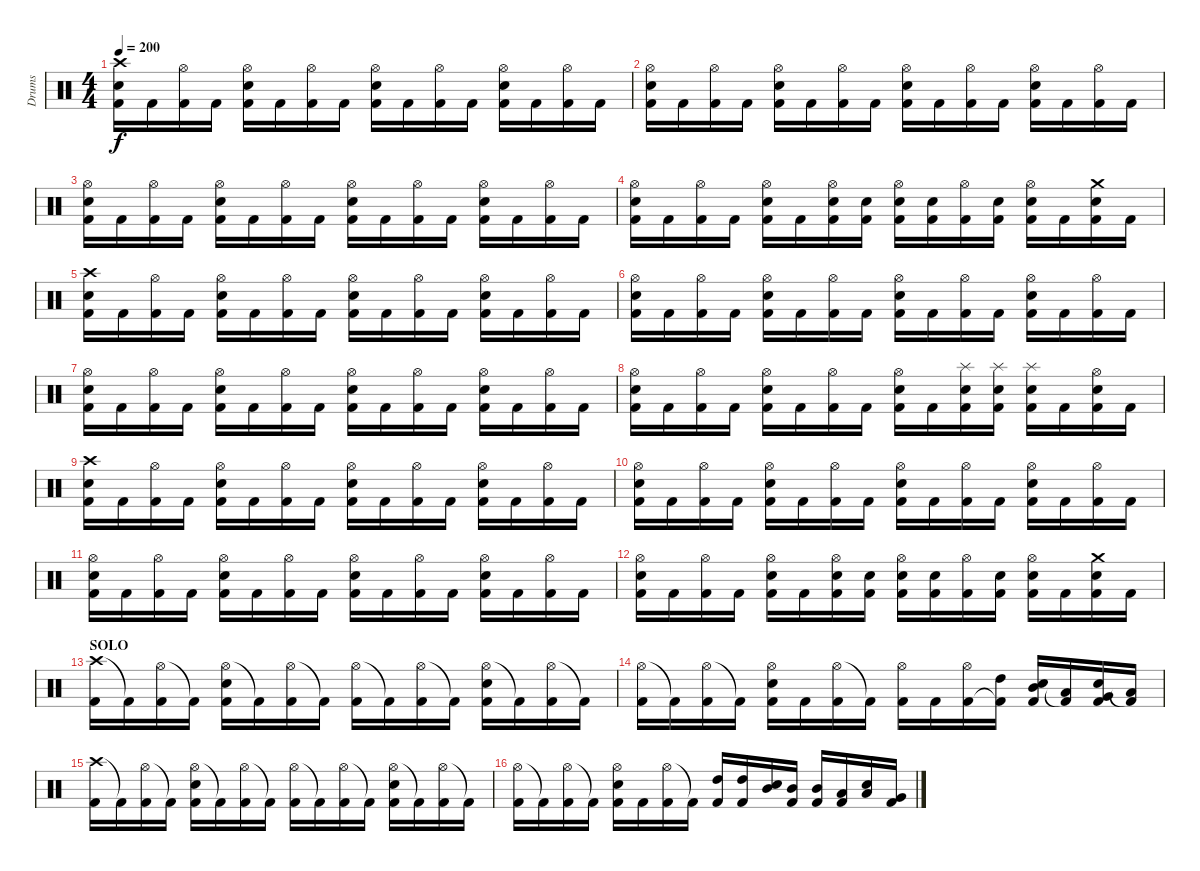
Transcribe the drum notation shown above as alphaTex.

\track ("Drums" "Drums") {instrument percussion}
\staff {score}
\articulation defaults
\ts (4 4)
\tempo 200
\clef neutral
\ks c
("Crash high (hit)" "Electric Snare (hit)" "Kick (hit) 2").16{dy f} "Kick (hit) 2".16 ("Hi-Hat (open)" "Kick (hit) 2").16 "Kick (hit) 2".16 ("Hi-Hat (open)" "Electric Snare (hit)" "Kick (hit) 2").16 "Kick (hit) 2".16 ("Hi-Hat (open)" "Kick (hit) 2").16 "Kick (hit) 2".16 ("Hi-Hat (open)" "Electric Snare (hit)" "Kick (hit) 2").16 "Kick (hit) 2".16 ("Hi-Hat (open)" "Kick (hit) 2").16 "Kick (hit) 2".16 ("Hi-Hat (open)" "Electric Snare (hit)" "Kick (hit) 2").16 "Kick (hit) 2".16 ("Hi-Hat (open)" "Kick (hit) 2").16 "Kick (hit) 2".16 |
("Hi-Hat (open)" "Electric Snare (hit)" "Kick (hit) 2").16 "Kick (hit) 2".16 ("Hi-Hat (open)" "Kick (hit) 2").16 "Kick (hit) 2".16 ("Hi-Hat (open)" "Electric Snare (hit)" "Kick (hit) 2").16 "Kick (hit) 2".16 ("Hi-Hat (open)" "Kick (hit) 2").16 "Kick (hit) 2".16 ("Hi-Hat (open)" "Electric Snare (hit)" "Kick (hit) 2").16 "Kick (hit) 2".16 ("Hi-Hat (open)" "Kick (hit) 2").16 "Kick (hit) 2".16 ("Hi-Hat (open)" "Electric Snare (hit)" "Kick (hit) 2").16 "Kick (hit) 2".16 ("Hi-Hat (open)" "Kick (hit) 2").16 "Kick (hit) 2".16 |
("Hi-Hat (open)" "Electric Snare (hit)" "Kick (hit) 2").16 "Kick (hit) 2".16 ("Hi-Hat (open)" "Kick (hit) 2").16 "Kick (hit) 2".16 ("Hi-Hat (open)" "Electric Snare (hit)" "Kick (hit) 2").16 "Kick (hit) 2".16 ("Hi-Hat (open)" "Kick (hit) 2").16 "Kick (hit) 2".16 ("Hi-Hat (open)" "Electric Snare (hit)" "Kick (hit) 2").16 "Kick (hit) 2".16 ("Hi-Hat (open)" "Kick (hit) 2").16 "Kick (hit) 2".16 ("Hi-Hat (open)" "Electric Snare (hit)" "Kick (hit) 2").16 "Kick (hit) 2".16 ("Hi-Hat (open)" "Kick (hit) 2").16 "Kick (hit) 2".16 |
("Hi-Hat (open)" "Electric Snare (hit)" "Kick (hit) 2").16 "Kick (hit) 2".16 ("Hi-Hat (open)" "Kick (hit) 2").16 "Kick (hit) 2".16 ("Hi-Hat (open)" "Electric Snare (hit)" "Kick (hit) 2").16 "Kick (hit) 2".16 ("Hi-Hat (open)" "Electric Snare (hit)" "Kick (hit) 2").16 ("Electric Snare (hit)" "Kick (hit) 2").16 ("Hi-Hat (open)" "Electric Snare (hit)" "Kick (hit) 2").16 ("Electric Snare (hit)" "Kick (hit) 2").16 ("Hi-Hat (open)" "Kick (hit) 2").16 ("Electric Snare (hit)" "Kick (hit) 2").16 ("Hi-Hat (open)" "Electric Snare (hit)" "Kick (hit) 2").16 "Kick (hit) 2".16 ("Crash medium (hit)" "Electric Snare (hit)" "Kick (hit) 2").16 "Kick (hit) 2".16 |
("Crash high (hit)" "Electric Snare (hit)" "Kick (hit) 2").16 "Kick (hit) 2".16 ("Hi-Hat (open)" "Kick (hit) 2").16 "Kick (hit) 2".16 ("Hi-Hat (open)" "Electric Snare (hit)" "Kick (hit) 2").16 "Kick (hit) 2".16 ("Hi-Hat (open)" "Kick (hit) 2").16 "Kick (hit) 2".16 ("Hi-Hat (open)" "Electric Snare (hit)" "Kick (hit) 2").16 "Kick (hit) 2".16 ("Hi-Hat (open)" "Kick (hit) 2").16 "Kick (hit) 2".16 ("Hi-Hat (open)" "Electric Snare (hit)" "Kick (hit) 2").16 "Kick (hit) 2".16 ("Hi-Hat (open)" "Kick (hit) 2").16 "Kick (hit) 2".16 |
("Hi-Hat (open)" "Electric Snare (hit)" "Kick (hit) 2").16 "Kick (hit) 2".16 ("Hi-Hat (open)" "Kick (hit) 2").16 "Kick (hit) 2".16 ("Hi-Hat (open)" "Electric Snare (hit)" "Kick (hit) 2").16 "Kick (hit) 2".16 ("Hi-Hat (open)" "Kick (hit) 2").16 "Kick (hit) 2".16 ("Hi-Hat (open)" "Electric Snare (hit)" "Kick (hit) 2").16 "Kick (hit) 2".16 ("Hi-Hat (open)" "Kick (hit) 2").16 "Kick (hit) 2".16 ("Hi-Hat (open)" "Electric Snare (hit)" "Kick (hit) 2").16 "Kick (hit) 2".16 ("Hi-Hat (open)" "Kick (hit) 2").16 "Kick (hit) 2".16 |
("Hi-Hat (open)" "Electric Snare (hit)" "Kick (hit) 2").16 "Kick (hit) 2".16 ("Hi-Hat (open)" "Kick (hit) 2").16 "Kick (hit) 2".16 ("Hi-Hat (open)" "Electric Snare (hit)" "Kick (hit) 2").16 "Kick (hit) 2".16 ("Hi-Hat (open)" "Kick (hit) 2").16 "Kick (hit) 2".16 ("Hi-Hat (open)" "Electric Snare (hit)" "Kick (hit) 2").16 "Kick (hit) 2".16 ("Hi-Hat (open)" "Kick (hit) 2").16 "Kick (hit) 2".16 ("Hi-Hat (open)" "Electric Snare (hit)" "Kick (hit) 2").16 "Kick (hit) 2".16 ("Hi-Hat (open)" "Kick (hit) 2").16 "Kick (hit) 2".16 |
("Hi-Hat (open)" "Electric Snare (hit)" "Kick (hit) 2").16 "Kick (hit) 2".16 ("Hi-Hat (open)" "Kick (hit) 2").16 "Kick (hit) 2".16 ("Hi-Hat (open)" "Electric Snare (hit)" "Kick (hit) 2").16 "Kick (hit) 2".16 ("Hi-Hat (open)" "Kick (hit) 2").16 "Kick (hit) 2".16 ("Hi-Hat (open)" "Electric Snare (hit)" "Kick (hit) 2").16 "Kick (hit) 2".16 ("Splash (hit)" "Electric Snare (hit)" "Kick (hit) 2").16 ("Splash (hit)" "Electric Snare (hit)" "Kick (hit) 2").16 ("Splash (hit)" "Electric Snare (hit)" "Kick (hit) 2").16 "Kick (hit) 2".16 ("Hi-Hat (open)" "Electric Snare (hit)" "Kick (hit) 2").16 "Kick (hit) 2".16 |
("Crash high (hit)" "Electric Snare (hit)" "Kick (hit) 2").16 "Kick (hit) 2".16 ("Hi-Hat (open)" "Kick (hit) 2").16 "Kick (hit) 2".16 ("Hi-Hat (open)" "Electric Snare (hit)" "Kick (hit) 2").16 "Kick (hit) 2".16 ("Hi-Hat (open)" "Kick (hit) 2").16 "Kick (hit) 2".16 ("Hi-Hat (open)" "Electric Snare (hit)" "Kick (hit) 2").16 "Kick (hit) 2".16 ("Hi-Hat (open)" "Kick (hit) 2").16 "Kick (hit) 2".16 ("Hi-Hat (open)" "Electric Snare (hit)" "Kick (hit) 2").16 "Kick (hit) 2".16 ("Hi-Hat (open)" "Kick (hit) 2").16 "Kick (hit) 2".16 |
("Hi-Hat (open)" "Electric Snare (hit)" "Kick (hit) 2").16 "Kick (hit) 2".16 ("Hi-Hat (open)" "Kick (hit) 2").16 "Kick (hit) 2".16 ("Hi-Hat (open)" "Electric Snare (hit)" "Kick (hit) 2").16 "Kick (hit) 2".16 ("Hi-Hat (open)" "Kick (hit) 2").16 "Kick (hit) 2".16 ("Hi-Hat (open)" "Electric Snare (hit)" "Kick (hit) 2").16 "Kick (hit) 2".16 ("Hi-Hat (open)" "Kick (hit) 2").16 "Kick (hit) 2".16 ("Hi-Hat (open)" "Electric Snare (hit)" "Kick (hit) 2").16 "Kick (hit) 2".16 ("Hi-Hat (open)" "Kick (hit) 2").16 "Kick (hit) 2".16 |
("Hi-Hat (open)" "Electric Snare (hit)" "Kick (hit) 2").16 "Kick (hit) 2".16 ("Hi-Hat (open)" "Kick (hit) 2").16 "Kick (hit) 2".16 ("Hi-Hat (open)" "Electric Snare (hit)" "Kick (hit) 2").16 "Kick (hit) 2".16 ("Hi-Hat (open)" "Kick (hit) 2").16 "Kick (hit) 2".16 ("Hi-Hat (open)" "Electric Snare (hit)" "Kick (hit) 2").16 "Kick (hit) 2".16 ("Hi-Hat (open)" "Kick (hit) 2").16 "Kick (hit) 2".16 ("Hi-Hat (open)" "Electric Snare (hit)" "Kick (hit) 2").16 "Kick (hit) 2".16 ("Hi-Hat (open)" "Kick (hit) 2").16 "Kick (hit) 2".16 |
("Hi-Hat (open)" "Electric Snare (hit)" "Kick (hit) 2").16 "Kick (hit) 2".16 ("Hi-Hat (open)" "Kick (hit) 2").16 "Kick (hit) 2".16 ("Hi-Hat (open)" "Electric Snare (hit)" "Kick (hit) 2").16 "Kick (hit) 2".16 ("Hi-Hat (open)" "Electric Snare (hit)" "Kick (hit) 2").16 ("Electric Snare (hit)" "Kick (hit) 2").16 ("Hi-Hat (open)" "Electric Snare (hit)" "Kick (hit) 2").16 ("Electric Snare (hit)" "Kick (hit) 2").16 ("Hi-Hat (open)" "Kick (hit) 2").16 ("Electric Snare (hit)" "Kick (hit) 2").16 ("Hi-Hat (open)" "Electric Snare (hit)" "Kick (hit) 2").16 "Kick (hit) 2".16 ("Crash medium (hit)" "Electric Snare (hit)" "Kick (hit) 2").16 "Kick (hit) 2".16 |
\section ("" "SOLO")
("Crash high (hit)" "Kick (hit) 2").16 "Kick (hit) 2"{t}.16 ("Hi-Hat (open)" "Kick (hit) 2").16 "Kick (hit) 2"{t}.16 ("Hi-Hat (open)" "Electric Snare (hit)" "Kick (hit) 2").16 "Kick (hit) 2"{t}.16 ("Hi-Hat (open)" "Kick (hit) 2").16 "Kick (hit) 2"{t}.16 ("Hi-Hat (open)" "Kick (hit) 2").16 "Kick (hit) 2"{t}.16 ("Hi-Hat (open)" "Kick (hit) 2").16 "Kick (hit) 2"{t}.16 ("Hi-Hat (open)" "Electric Snare (hit)" "Kick (hit) 2").16 "Kick (hit) 2"{t}.16 ("Hi-Hat (open)" "Kick (hit) 2").16 "Kick (hit) 2"{t}.16 |
("Hi-Hat (open)" "Kick (hit) 2").16 "Kick (hit) 2"{t}.16 ("Hi-Hat (open)" "Kick (hit) 2").16 "Kick (hit) 2"{t}.16 ("Hi-Hat (open)" "Electric Snare (hit)" "Kick (hit) 2").16 "Kick (hit) 2".16 ("Hi-Hat (open)" "Kick (hit) 2").16 "Kick (hit) 2"{t}.16 ("Hi-Hat (open)" "Kick (hit) 2").16 "Kick (hit) 2".16 ("Hi-Hat (open)" "Kick (hit) 2").16 ("High Tom (hit)" "Kick (hit) 2"{t}).16 ("Mid Tom (hit)" "Electric Snare (hit)" "Kick (hit) 2").16 ("Low Tom (hit)" "Kick (hit) 2"{t}).16 ("Very Low Tom (hit)" "Electric Snare (hit)" "Kick (hit) 2").16 ("Low Floor Tom (hit)" "Kick (hit) 2"{t}).16 |
("Crash high (hit)" "Kick (hit) 2").16 "Kick (hit) 2"{t}.16 ("Hi-Hat (open)" "Kick (hit) 2").16 "Kick (hit) 2"{t}.16 ("Hi-Hat (open)" "Electric Snare (hit)" "Kick (hit) 2").16 "Kick (hit) 2"{t}.16 ("Hi-Hat (open)" "Kick (hit) 2").16 "Kick (hit) 2"{t}.16 ("Hi-Hat (open)" "Kick (hit) 2").16 "Kick (hit) 2"{t}.16 ("Hi-Hat (open)" "Kick (hit) 2").16 "Kick (hit) 2"{t}.16 ("Hi-Hat (open)" "Electric Snare (hit)" "Kick (hit) 2").16 "Kick (hit) 2"{t}.16 ("Hi-Hat (open)" "Kick (hit) 2").16 "Kick (hit) 2"{t}.16 |
("Hi-Hat (open)" "Kick (hit) 2").16 "Kick (hit) 2"{t}.16 ("Hi-Hat (open)" "Kick (hit) 2").16 "Kick (hit) 2"{t}.16 ("Hi-Hat (open)" "Electric Snare (hit)" "Kick (hit) 2").16 "Kick (hit) 2".16 ("Hi-Hat (open)" "Kick (hit) 2").16 "Kick (hit) 2"{t}.16 ("High Tom (hit)" "Kick (hit) 2").16 ("High Tom (hit)" "Kick (hit) 2").16 ("Mid Tom (hit)" "Electric Snare (hit)").16 ("Mid Tom (hit)" "Kick (hit) 2").16 ("Mid Tom (hit)" "Kick (hit) 2").16 ("Low Tom (hit)" "Kick (hit) 2").16 ("Low Tom (hit)" "Electric Snare (hit)").16 ("Very Low Tom (hit)" "Kick (hit) 2").16
